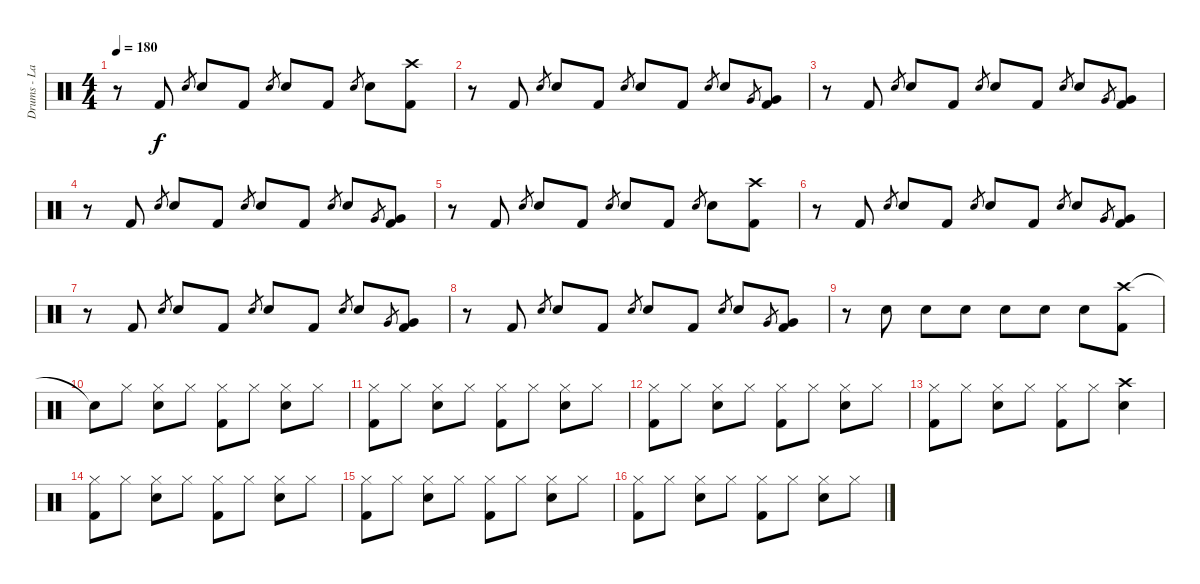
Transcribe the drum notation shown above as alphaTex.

\track ("Drums - Lars" "Drums - La") {instrument percussion}
\staff {score}
\articulation defaults
\ts (4 4)
\tempo 180
\clef neutral
\ks c
r.8{dy f} "Kick (hit) 2".8 "Snare (hit) 2".8{gr} "Snare (hit) 2".8 "Kick (hit) 2".8 "Snare (hit) 2".8{gr} "Snare (hit) 2".8 "Kick (hit) 2".8 "Snare (hit) 2".8{gr} "Snare (hit) 2".8 ("Crash high (hit)" "Kick (hit) 2").8 |
r.8 "Kick (hit) 2".8 "Snare (hit) 2".8{gr} "Snare (hit) 2".8 "Kick (hit) 2".8 "Snare (hit) 2".8{gr} "Snare (hit) 2".8 "Kick (hit) 2".8 "Snare (hit) 2".8{gr} "Snare (hit) 2".8 "Very Low Tom (hit)".8{gr} ("Very Low Tom (hit)" "Kick (hit) 2").8 |
r.8 "Kick (hit) 2".8 "Snare (hit) 2".8{gr} "Snare (hit) 2".8 "Kick (hit) 2".8 "Snare (hit) 2".8{gr} "Snare (hit) 2".8 "Kick (hit) 2".8 "Snare (hit) 2".8{gr} "Snare (hit) 2".8 "Very Low Tom (hit)".8{gr} ("Very Low Tom (hit)" "Kick (hit) 2").8 |
r.8 "Kick (hit) 2".8 "Snare (hit) 2".8{gr} "Snare (hit) 2".8 "Kick (hit) 2".8 "Snare (hit) 2".8{gr} "Snare (hit) 2".8 "Kick (hit) 2".8 "Snare (hit) 2".8{gr} "Snare (hit) 2".8 "Very Low Tom (hit)".8{gr} ("Very Low Tom (hit)" "Kick (hit) 2").8 |
r.8 "Kick (hit) 2".8 "Snare (hit) 2".8{gr} "Snare (hit) 2".8 "Kick (hit) 2".8 "Snare (hit) 2".8{gr} "Snare (hit) 2".8 "Kick (hit) 2".8 "Snare (hit) 2".8{gr} "Snare (hit) 2".8 ("Crash high (hit)" "Kick (hit) 2").8 |
r.8 "Kick (hit) 2".8 "Snare (hit) 2".8{gr} "Snare (hit) 2".8 "Kick (hit) 2".8 "Snare (hit) 2".8{gr} "Snare (hit) 2".8 "Kick (hit) 2".8 "Snare (hit) 2".8{gr} "Snare (hit) 2".8 "Very Low Tom (hit)".8{gr} ("Very Low Tom (hit)" "Kick (hit) 2").8 |
r.8 "Kick (hit) 2".8 "Snare (hit) 2".8{gr} "Snare (hit) 2".8 "Kick (hit) 2".8 "Snare (hit) 2".8{gr} "Snare (hit) 2".8 "Kick (hit) 2".8 "Snare (hit) 2".8{gr} "Snare (hit) 2".8 "Very Low Tom (hit)".8{gr} ("Very Low Tom (hit)" "Kick (hit) 2").8 |
r.8 "Kick (hit) 2".8 "Snare (hit) 2".8{gr} "Snare (hit) 2".8 "Kick (hit) 2".8 "Snare (hit) 2".8{gr} "Snare (hit) 2".8 "Kick (hit) 2".8 "Snare (hit) 2".8{gr} "Snare (hit) 2".8 "Very Low Tom (hit)".8{gr} ("Very Low Tom (hit)" "Kick (hit) 2").8 |
r.8 "Snare (hit) 2".8 "Snare (hit) 2".8 "Snare (hit) 2".8 "Snare (hit) 2".8 "Snare (hit) 2".8 "Snare (hit) 2".8 ("Crash high (hit)" "Kick (hit) 2").8 |
"Snare (hit)"{t}.8 "Hi-Hat (closed)".8 ("Hi-Hat (closed)" "Snare (hit) 2").8 "Hi-Hat (closed)".8 ("Hi-Hat (closed)" "Kick (hit) 2").8 "Hi-Hat (closed)".8 ("Hi-Hat (closed)" "Snare (hit) 2").8 "Hi-Hat (closed)".8 |
("Hi-Hat (closed)" "Kick (hit) 2").8 "Hi-Hat (closed)".8 ("Hi-Hat (closed)" "Snare (hit) 2").8 "Hi-Hat (closed)".8 ("Hi-Hat (closed)" "Kick (hit) 2").8 "Hi-Hat (closed)".8 ("Hi-Hat (closed)" "Snare (hit) 2").8 "Hi-Hat (closed)".8 |
("Hi-Hat (closed)" "Kick (hit) 2").8 "Hi-Hat (closed)".8 ("Hi-Hat (closed)" "Snare (hit) 2").8 "Hi-Hat (closed)".8 ("Hi-Hat (closed)" "Kick (hit) 2").8 "Hi-Hat (closed)".8 ("Hi-Hat (closed)" "Snare (hit) 2").8 "Hi-Hat (closed)".8 |
("Hi-Hat (closed)" "Kick (hit) 2").8 "Hi-Hat (closed)".8 ("Hi-Hat (closed)" "Snare (hit) 2").8 "Hi-Hat (closed)".8 ("Hi-Hat (closed)" "Kick (hit) 2").8 "Hi-Hat (closed)".8 ("Crash high (hit)" "Snare (hit) 2").4 |
("Hi-Hat (closed)" "Kick (hit) 2").8 "Hi-Hat (closed)".8 ("Hi-Hat (closed)" "Snare (hit) 2").8 "Hi-Hat (closed)".8 ("Hi-Hat (closed)" "Kick (hit) 2").8 "Hi-Hat (closed)".8 ("Hi-Hat (closed)" "Snare (hit) 2").8 "Hi-Hat (closed)".8 |
("Hi-Hat (closed)" "Kick (hit) 2").8 "Hi-Hat (closed)".8 ("Hi-Hat (closed)" "Snare (hit) 2").8 "Hi-Hat (closed)".8 ("Hi-Hat (closed)" "Kick (hit) 2").8 "Hi-Hat (closed)".8 ("Hi-Hat (closed)" "Snare (hit) 2").8 "Hi-Hat (closed)".8 |
("Hi-Hat (closed)" "Kick (hit) 2").8 "Hi-Hat (closed)".8 ("Hi-Hat (closed)" "Snare (hit) 2").8 "Hi-Hat (closed)".8 ("Hi-Hat (closed)" "Kick (hit) 2").8 "Hi-Hat (closed)".8 ("Hi-Hat (closed)" "Snare (hit) 2").8 "Hi-Hat (closed)".8
